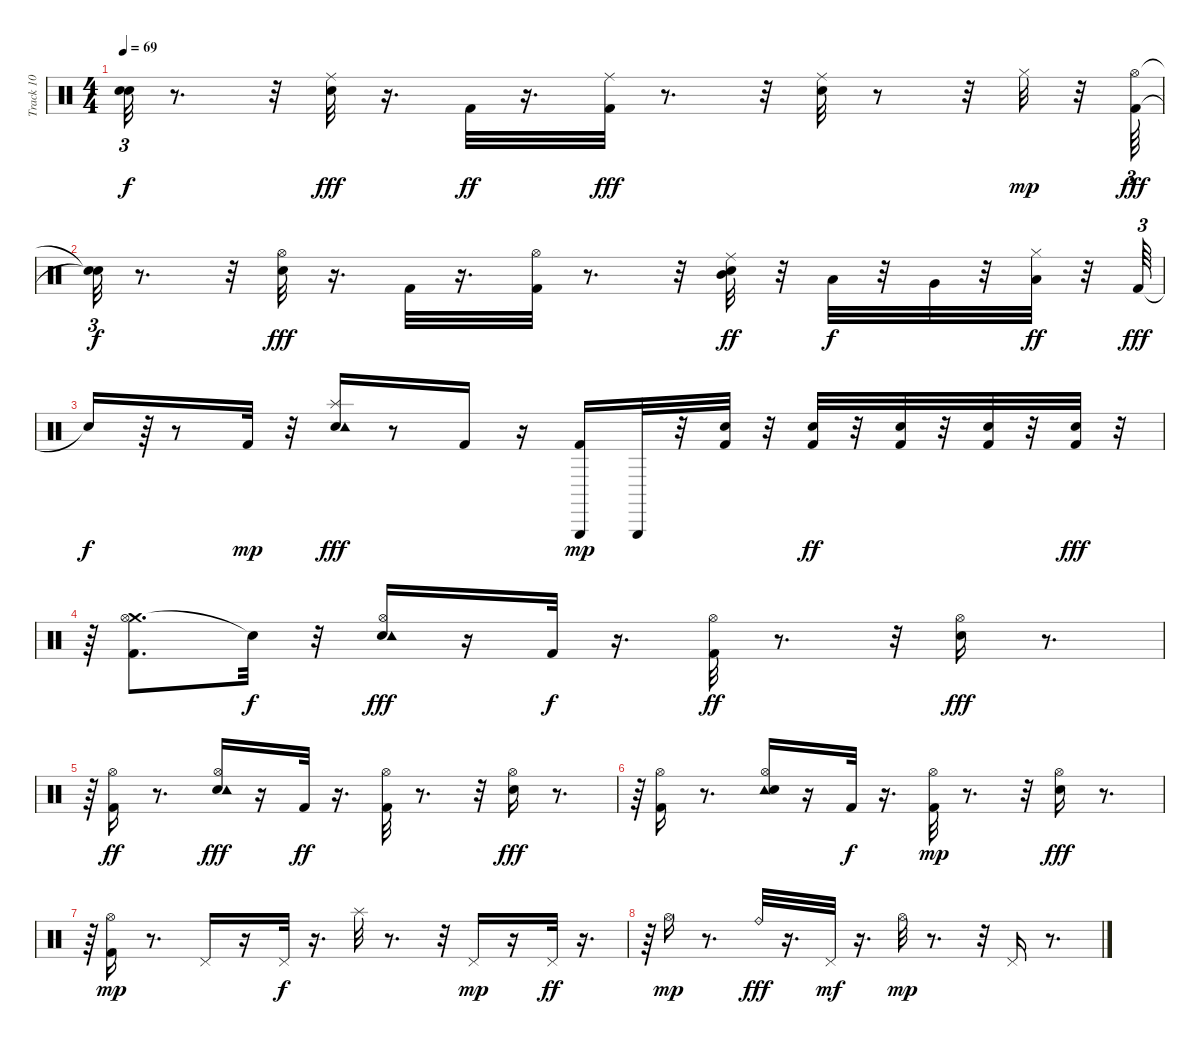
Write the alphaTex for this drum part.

\track ("Track 10" "Track 10") {instrument percussion}
\staff {score}
\articulation defaults
\ts (4 4)
\tempo 69
\clef neutral
\ks c
("Snare (hit)"{t} "Snare (hit)"{t}).32{tu (3 2) dy f} r.8{d} r.32 ("Ride (middle)" "Snare (hit) 2").32{dy fff} r.16{d} "Kick (hit) 2".32{dy ff} r.16{d} ("Kick (hit) 2" "Ride (middle)").32{dy fff} r.8{d} r.32 ("Snare (hit) 2" "Ride (middle)").32 r.8 r.32 "Hi-Hat (closed)".32{dy mp} r.32 ("Hi-Hat (open)" "Kick (hit) 2").64{tu (3 2) dy fff} |
("Snare (hit)"{t} "Snare (hit)"{t}).32{tu (3 2) dy f} r.8{d} r.32 ("Hi-Hat (open)" "Snare (hit) 2").32{dy fff} r.16{d} "Kick (hit) 2".32 r.16{d} ("Hi-Hat (open)" "Kick (hit) 2").32 r.8{d} r.32 ("Ride (middle)" "Snare (hit) 2" "Mid Tom (hit)").32{dy ff} r.32 "Low Tom (hit)".32{dy f} r.32 "Very Low Tom (hit)".32 r.32 ("Hi-Hat (closed)" "Low Floor Tom (hit)").32{dy ff} r.32 "Kick (hit) 2".64{tu (3 2) dy fff} |
"Snare (hit)"{t}.16{dy f} r.64 r.8 "Kick (hit) 2".32{dy mp} r.32 ("Splash (hit)" "Snare (hit) 2" "Tambourine (hit)").16{dy fff} r.8 "Kick (hit) 2".16 r.16 ("Kick (hit) 2" "Triangle (hit)").16{dy mp} "Triangle (hit)".32 r.32 ("Kick (hit) 2" "Snare (hit) 2").32 r.32 ("Kick (hit) 2" "Snare (hit) 2").32{dy ff} r.32 ("Kick (hit) 2" "Snare (hit) 2").32 r.32 ("Kick (hit) 2" "Snare (hit) 2").32 r.32 ("Kick (hit) 2" "Snare (hit) 2").32{dy fff} r.32 |
r.64 ("Crash medium (hit)" "Hi-Hat (open)" "Kick (hit) 2").8{d} "Snare (hit)"{t}.32{dy f} r.32 ("Hi-Hat (open)" "Snare (hit) 2" "Tambourine (hit)").16{dy fff} r.16 "Kick (hit) 2".32{dy f} r.16{d} ("Hi-Hat (open)" "Kick (hit) 2").32{dy ff} r.8{d} r.32 ("Hi-Hat (open)" "Snare (hit) 2").16{dy fff} r.8{d} |
r.64 ("Hi-Hat (open)" "Kick (hit) 2").16{dy ff} r.8{d} ("Snare (hit) 2" "Hi-Hat (open)" "Tambourine (hit)").16{dy fff} r.16 "Kick (hit) 2".32{dy ff} r.16{d} ("Hi-Hat (open)" "Kick (hit) 2").32 r.8{d} r.32 ("Hi-Hat (open)" "Snare (hit) 2").16{dy fff} r.8{d} |
r.64 ("Hi-Hat (open)" "Kick (hit) 2").16 r.8{d} ("Hi-Hat (open)" "Tambourine (hit)" "Snare (hit) 2").16 r.16 "Kick (hit) 2".32{dy f} r.16{d} ("Kick (hit) 2" "Hi-Hat (open)").32{dy mp} r.8{d} r.32 ("Hi-Hat (open)" "Snare (hit) 2").16{dy fff} r.8{d} |
r.64 ("Kick (hit) 2" "Hi-Hat (open)").16{dy mp} r.8{d} "Pedal Hi-Hat (hit)".16 r.16 "Pedal Hi-Hat (hit)".32{dy f} r.16{d} "Splash (hit)".32 r.8{d} r.32 "Pedal Hi-Hat (hit)".16{dy mp} r.16 "Pedal Hi-Hat (hit)".32{dy ff} r.16{d} |
r.64 "Hi-Hat (open)".16{dy mp} r.8{d} "Ride (bell)".32{dy fff} r.16{d} "Pedal Hi-Hat (hit)".32{dy mf} r.16{d} "Hi-Hat (open)".32{dy mp} r.8{d} r.32 "Pedal Hi-Hat (hit)".16 r.8{d}
